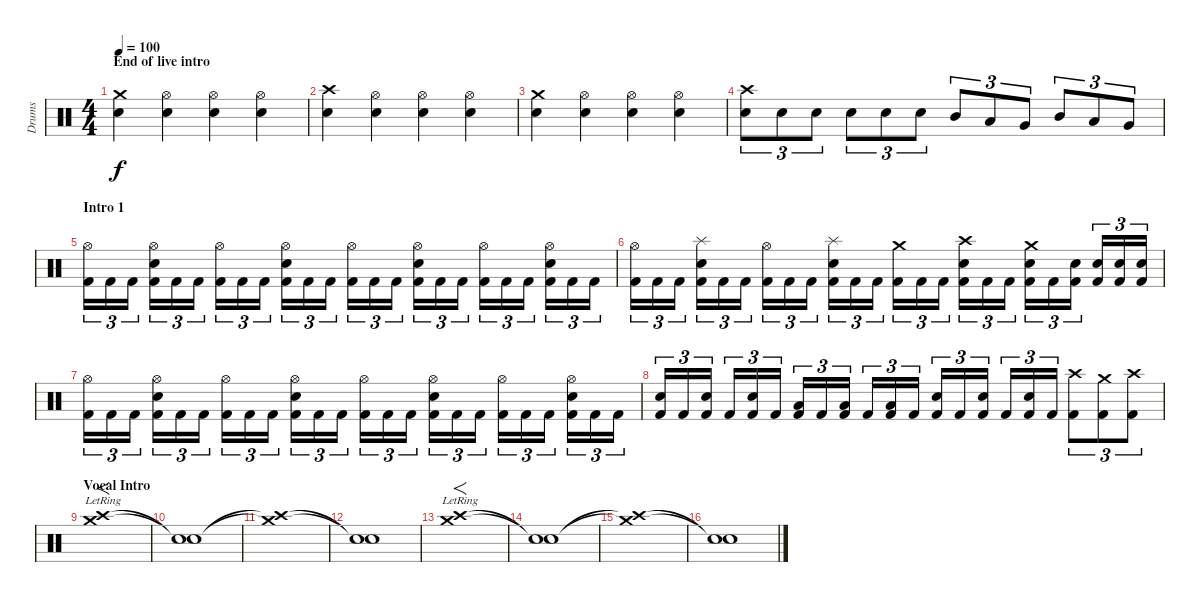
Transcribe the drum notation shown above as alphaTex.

\track ("Drums" "Drums") {instrument percussion}
\staff {score}
\articulation defaults
\ts (4 4)
\section ("" "End of live intro")
\tempo 100
\clef neutral
\ks c
("Crash medium (hit)" "Snare (hit) 2").4{dy f} ("Hi-Hat (open)" "Snare (hit) 2").4 ("Hi-Hat (open)" "Snare (hit) 2").4 ("Hi-Hat (open)" "Snare (hit) 2").4 |
("Crash high (hit)" "Snare (hit) 2").4 ("Hi-Hat (open)" "Snare (hit) 2").4 ("Hi-Hat (open)" "Snare (hit) 2").4 ("Hi-Hat (open)" "Snare (hit) 2").4 |
("Crash medium (hit)" "Snare (hit) 2").4 ("Hi-Hat (open)" "Snare (hit) 2").4 ("Hi-Hat (open)" "Snare (hit) 2").4 ("Hi-Hat (open)" "Snare (hit) 2").4 |
("Crash high (hit)" "Snare (hit) 2").8{tu (3 2)} "Snare (hit) 2".8{tu (3 2)} "Snare (hit) 2".8{tu (3 2)} "Snare (hit) 2".8{tu (3 2)} "Snare (hit) 2".8{tu (3 2)} "Snare (hit) 2".8{tu (3 2)} "Mid Tom (hit)".8{tu (3 2)} "Low Tom (hit)".8{tu (3 2)} "Very Low Tom (hit)".8{tu (3 2)} "Mid Tom (hit)".8{tu (3 2)} "Low Tom (hit)".8{tu (3 2)} "Very Low Tom (hit)".8{tu (3 2)} |
\section ("" "Intro 1")
("Hi-Hat (open)" "Kick (hit) 2").16{tu (3 2)} "Kick (hit) 2".16{tu (3 2)} "Kick (hit) 2".16{tu (3 2)} ("Hi-Hat (open)" "Electric Snare (hit)" "Kick (hit) 2").16{tu (3 2)} "Kick (hit) 2".16{tu (3 2)} "Kick (hit) 2".16{tu (3 2)} ("Hi-Hat (open)" "Kick (hit) 2").16{tu (3 2)} "Kick (hit) 2".16{tu (3 2)} "Kick (hit) 2".16{tu (3 2)} ("Hi-Hat (open)" "Electric Snare (hit)" "Kick (hit) 2").16{tu (3 2)} "Kick (hit) 2".16{tu (3 2)} "Kick (hit) 2".16{tu (3 2)} ("Hi-Hat (open)" "Kick (hit) 2").16{tu (3 2)} "Kick (hit) 2".16{tu (3 2)} "Kick (hit) 2".16{tu (3 2)} ("Hi-Hat (open)" "Electric Snare (hit)" "Kick (hit) 2").16{tu (3 2)} "Kick (hit) 2".16{tu (3 2)} "Kick (hit) 2".16{tu (3 2)} ("Hi-Hat (open)" "Kick (hit) 2").16{tu (3 2)} "Kick (hit) 2".16{tu (3 2)} "Kick (hit) 2".16{tu (3 2)} ("Hi-Hat (open)" "Electric Snare (hit)" "Kick (hit) 2").16{tu (3 2)} "Kick (hit) 2".16{tu (3 2)} "Kick (hit) 2".16{tu (3 2)} |
("Hi-Hat (open)" "Kick (hit) 2").16{tu (3 2)} "Kick (hit) 2".16{tu (3 2)} "Kick (hit) 2".16{tu (3 2)} ("Splash (hit)" "Electric Snare (hit)" "Kick (hit) 2").16{tu (3 2)} "Kick (hit) 2".16{tu (3 2)} "Kick (hit) 2".16{tu (3 2)} ("Hi-Hat (open)" "Kick (hit) 2").16{tu (3 2)} "Kick (hit) 2".16{tu (3 2)} "Kick (hit) 2".16{tu (3 2)} ("Splash (hit)" "Electric Snare (hit)" "Kick (hit) 2").16{tu (3 2)} "Kick (hit) 2".16{tu (3 2)} "Kick (hit) 2".16{tu (3 2)} ("Crash medium (hit)" "Kick (hit) 2").16{tu (3 2)} "Kick (hit) 2".16{tu (3 2)} "Kick (hit) 2".16{tu (3 2)} ("Crash high (hit)" "Electric Snare (hit)" "Kick (hit) 2").16{tu (3 2)} "Kick (hit) 2".16{tu (3 2)} "Kick (hit) 2".16{tu (3 2)} ("Crash medium (hit)" "Electric Snare (hit)" "Kick (hit) 2").16{tu (3 2)} "Kick (hit) 2".16{tu (3 2)} ("Electric Snare (hit)" "Kick (hit) 2").16{tu (3 2)} ("Electric Snare (hit)" "Kick (hit) 2").16{tu (3 2)} ("Electric Snare (hit)" "Kick (hit) 2").16{tu (3 2)} ("Electric Snare (hit)" "Kick (hit) 2").16{tu (3 2)} |
("Hi-Hat (open)" "Kick (hit) 2").16{tu (3 2)} "Kick (hit) 2".16{tu (3 2)} "Kick (hit) 2".16{tu (3 2)} ("Hi-Hat (open)" "Electric Snare (hit)" "Kick (hit) 2").16{tu (3 2)} "Kick (hit) 2".16{tu (3 2)} "Kick (hit) 2".16{tu (3 2)} ("Hi-Hat (open)" "Kick (hit) 2").16{tu (3 2)} "Kick (hit) 2".16{tu (3 2)} "Kick (hit) 2".16{tu (3 2)} ("Hi-Hat (open)" "Electric Snare (hit)" "Kick (hit) 2").16{tu (3 2)} "Kick (hit) 2".16{tu (3 2)} "Kick (hit) 2".16{tu (3 2)} ("Hi-Hat (open)" "Kick (hit) 2").16{tu (3 2)} "Kick (hit) 2".16{tu (3 2)} "Kick (hit) 2".16{tu (3 2)} ("Hi-Hat (open)" "Electric Snare (hit)" "Kick (hit) 2").16{tu (3 2)} "Kick (hit) 2".16{tu (3 2)} "Kick (hit) 2".16{tu (3 2)} ("Hi-Hat (open)" "Kick (hit) 2").16{tu (3 2)} "Kick (hit) 2".16{tu (3 2)} "Kick (hit) 2".16{tu (3 2)} ("Hi-Hat (open)" "Electric Snare (hit)" "Kick (hit) 2").16{tu (3 2)} "Kick (hit) 2".16{tu (3 2)} "Kick (hit) 2".16{tu (3 2)} |
("Snare (hit) 2" "Kick (hit) 2").16{tu (3 2)} "Kick (hit) 2".16{tu (3 2)} ("Snare (hit) 2" "Kick (hit) 2").16{tu (3 2)} "Kick (hit) 2".16{tu (3 2)} ("Snare (hit) 2" "Kick (hit) 2").16{tu (3 2)} "Kick (hit) 2".16{tu (3 2)} ("Low Floor Tom (hit)" "Kick (hit) 2").16{tu (3 2)} "Kick (hit) 2".16{tu (3 2)} ("Low Floor Tom (hit)" "Kick (hit) 2").16{tu (3 2)} "Kick (hit) 2".16{tu (3 2)} ("Low Floor Tom (hit)" "Kick (hit) 2").16{tu (3 2)} "Kick (hit) 2".16{tu (3 2)} ("Snare (hit) 2" "Kick (hit) 2").16{tu (3 2)} "Kick (hit) 2".16{tu (3 2)} ("Snare (hit) 2" "Kick (hit) 2").16{tu (3 2)} "Kick (hit) 2".16{tu (3 2)} ("Snare (hit) 2" "Kick (hit) 2").16{tu (3 2)} "Kick (hit) 2".16{tu (3 2)} ("Crash high (hit)" "Kick (hit) 2").8{tu (3 2)} ("Crash medium (hit)" "Kick (hit) 2").8{tu (3 2)} ("Crash high (hit)" "Kick (hit) 2").8{tu (3 2)} |
\section ("" "Vocal Intro")
("Crash medium (hit)"{lr} "Crash high (hit)"{lr}).1{f} |
("Snare (hit)"{t} "Snare (hit)"{t}).1 |
("Crash medium (hit)"{t} "Crash high (hit)"{t}).1 |
("Snare (hit)"{t} "Snare (hit)"{t}).1 |
("Crash medium (hit)"{lr} "Crash high (hit)"{lr}).1{f} |
("Snare (hit)"{t} "Snare (hit)"{t}).1 |
("Crash medium (hit)"{t} "Crash high (hit)"{t}).1 |
("Snare (hit)"{t} "Snare (hit)"{t}).1
